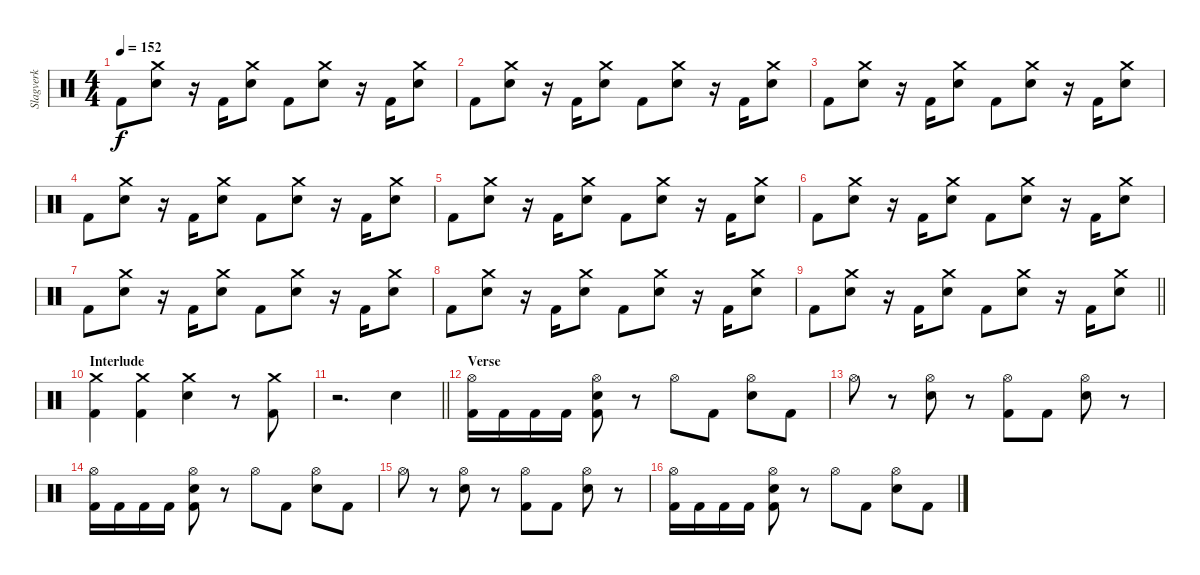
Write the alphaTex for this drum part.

\track ("Slagverk" "Slagverk") {instrument percussion}
\staff
\articulation defaults
\ts (4 4)
\tempo 152
\clef neutral
\ks c "Kick (hit) 2".8{dy f}
("Crash medium (hit)" "Electric Snare (hit)").8 r.16 "Kick (hit) 2".16 ("Crash medium (hit)" "Electric Snare (hit)").8 "Kick (hit) 2".8 ("Crash medium (hit)" "Electric Snare (hit)").8 r.16 "Kick (hit) 2".16 ("Crash medium (hit)" "Electric Snare (hit)").8 |
"Kick (hit) 2".8 ("Crash medium (hit)" "Electric Snare (hit)").8 r.16 "Kick (hit) 2".16 ("Crash medium (hit)" "Electric Snare (hit)").8 "Kick (hit) 2".8 ("Crash medium (hit)" "Electric Snare (hit)").8 r.16 "Kick (hit) 2".16 ("Crash medium (hit)" "Electric Snare (hit)").8 |
"Kick (hit) 2".8 ("Crash medium (hit)" "Electric Snare (hit)").8 r.16 "Kick (hit) 2".16 ("Crash medium (hit)" "Electric Snare (hit)").8 "Kick (hit) 2".8 ("Crash medium (hit)" "Electric Snare (hit)").8 r.16 "Kick (hit) 2".16 ("Crash medium (hit)" "Electric Snare (hit)").8 |
"Kick (hit) 2".8 ("Crash medium (hit)" "Electric Snare (hit)").8 r.16 "Kick (hit) 2".16 ("Crash medium (hit)" "Electric Snare (hit)").8 "Kick (hit) 2".8 ("Crash medium (hit)" "Electric Snare (hit)").8 r.16 "Kick (hit) 2".16 ("Crash medium (hit)" "Electric Snare (hit)").8 |
"Kick (hit) 2".8 ("Crash medium (hit)" "Electric Snare (hit)").8 r.16 "Kick (hit) 2".16 ("Crash medium (hit)" "Electric Snare (hit)").8 "Kick (hit) 2".8 ("Crash medium (hit)" "Electric Snare (hit)").8 r.16 "Kick (hit) 2".16 ("Crash medium (hit)" "Electric Snare (hit)").8 |
"Kick (hit) 2".8 ("Crash medium (hit)" "Electric Snare (hit)").8 r.16 "Kick (hit) 2".16 ("Crash medium (hit)" "Electric Snare (hit)").8 "Kick (hit) 2".8 ("Crash medium (hit)" "Electric Snare (hit)").8 r.16 "Kick (hit) 2".16 ("Crash medium (hit)" "Electric Snare (hit)").8 |
"Kick (hit) 2".8 ("Crash medium (hit)" "Electric Snare (hit)").8 r.16 "Kick (hit) 2".16 ("Crash medium (hit)" "Electric Snare (hit)").8 "Kick (hit) 2".8 ("Crash medium (hit)" "Electric Snare (hit)").8 r.16 "Kick (hit) 2".16 ("Crash medium (hit)" "Electric Snare (hit)").8 |
"Kick (hit) 2".8 ("Crash medium (hit)" "Electric Snare (hit)").8 r.16 "Kick (hit) 2".16 ("Crash medium (hit)" "Electric Snare (hit)").8 "Kick (hit) 2".8 ("Crash medium (hit)" "Electric Snare (hit)").8 r.16 "Kick (hit) 2".16 ("Crash medium (hit)" "Electric Snare (hit)").8 |
\barLineRight lightlight "Kick (hit) 2".8
("Crash medium (hit)" "Electric Snare (hit)").8 r.16 "Kick (hit) 2".16 ("Crash medium (hit)" "Electric Snare (hit)").8 "Kick (hit) 2".8 ("Crash medium (hit)" "Electric Snare (hit)").8 r.16 "Kick (hit) 2".16 ("Crash medium (hit)" "Electric Snare (hit)").8 |
\section ("" "Interlude")
("Crash medium (hit)" "Kick (hit) 2").4 ("Crash medium (hit)" "Kick (hit) 2").4 ("Crash medium (hit)" "Electric Snare (hit)").4 r.8 ("Crash medium (hit)" "Kick (hit) 2").8 |
\barLineRight lightlight
r.2{d} "Electric Snare (hit)".4 |
\section ("" "Verse")
("Hi-Hat (open)" "Kick (hit) 2").16 "Kick (hit) 2".16 "Kick (hit) 2".16 "Kick (hit) 2".16 ("Hi-Hat (open)" "Electric Snare (hit)" "Kick (hit) 2").8 r.8 "Hi-Hat (open)".8 "Kick (hit) 2".8 ("Hi-Hat (open)" "Electric Snare (hit)").8 "Kick (hit) 2".8 |
"Hi-Hat (open)".8 r.8 ("Hi-Hat (open)" "Electric Snare (hit)").8 r.8 ("Hi-Hat (open)" "Kick (hit) 2").8 "Kick (hit) 2".8 ("Hi-Hat (open)" "Electric Snare (hit)").8 r.8 |
("Hi-Hat (open)" "Kick (hit) 2").16 "Kick (hit) 2".16 "Kick (hit) 2".16 "Kick (hit) 2".16 ("Hi-Hat (open)" "Electric Snare (hit)" "Kick (hit) 2").8 r.8 "Hi-Hat (open)".8 "Kick (hit) 2".8 ("Hi-Hat (open)" "Electric Snare (hit)").8 "Kick (hit) 2".8 |
"Hi-Hat (open)".8 r.8 ("Hi-Hat (open)" "Electric Snare (hit)").8 r.8 ("Hi-Hat (open)" "Kick (hit) 2").8 "Kick (hit) 2".8 ("Hi-Hat (open)" "Electric Snare (hit)").8 r.8 |
("Hi-Hat (open)" "Kick (hit) 2").16 "Kick (hit) 2".16 "Kick (hit) 2".16 "Kick (hit) 2".16 ("Hi-Hat (open)" "Electric Snare (hit)" "Kick (hit) 2").8 r.8 "Hi-Hat (open)".8 "Kick (hit) 2".8 ("Hi-Hat (open)" "Electric Snare (hit)").8 "Kick (hit) 2".8
